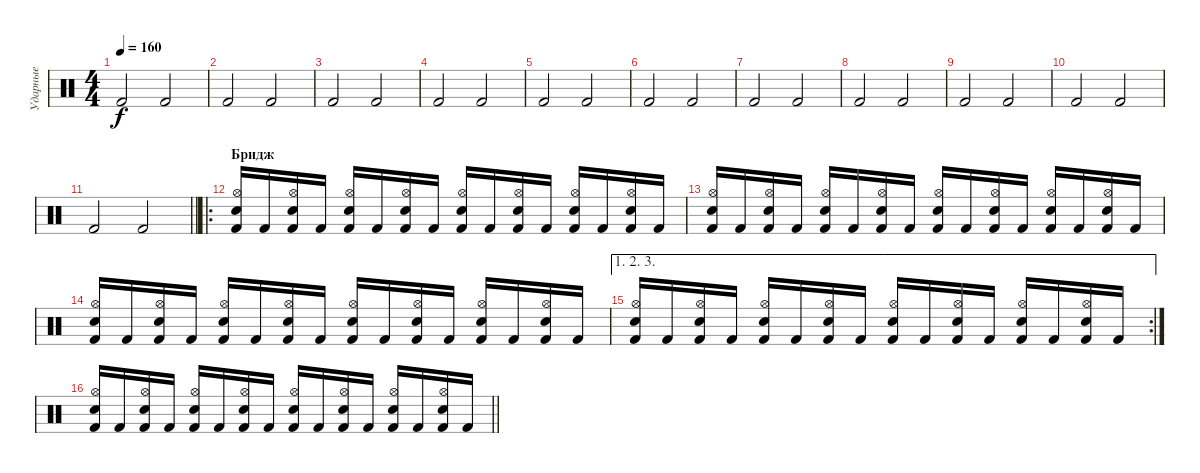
\track ("Ударные" "Ударные") {instrument percussion}
\staff {score}
\articulation defaults
\ts (4 4)
\tempo 160
\clef neutral
\ks c "Kick (hit) 2".2{dy f} "Kick (hit) 2".2
|
"Kick (hit) 2".2 "Kick (hit) 2".2 |
"Kick (hit) 2".2 "Kick (hit) 2".2 |
"Kick (hit) 2".2 "Kick (hit) 2".2 |
"Kick (hit) 2".2 "Kick (hit) 2".2 |
"Kick (hit) 2".2 "Kick (hit) 2".2 |
"Kick (hit) 2".2 "Kick (hit) 2".2 |
"Kick (hit) 2".2 "Kick (hit) 2".2 |
"Kick (hit) 2".2 "Kick (hit) 2".2 |
"Kick (hit) 2".2 "Kick (hit) 2".2 |
\barLineRight lightlight "Kick (hit) 2".2 "Kick (hit) 2".2
|
\ro
\section ("" "Бридж")
("Hi-Hat (open)" "Snare (hit) 2" "Kick (hit) 2").16 "Kick (hit) 2".16 ("Hi-Hat (open)" "Snare (hit) 2" "Kick (hit) 2").16 "Kick (hit) 2".16 ("Hi-Hat (open)" "Snare (hit) 2" "Kick (hit) 2").16 "Kick (hit) 2".16 ("Hi-Hat (open)" "Snare (hit) 2" "Kick (hit) 2").16 "Kick (hit) 2".16 ("Hi-Hat (open)" "Snare (hit) 2" "Kick (hit) 2").16 "Kick (hit) 2".16 ("Hi-Hat (open)" "Snare (hit) 2" "Kick (hit) 2").16 "Kick (hit) 2".16 ("Hi-Hat (open)" "Snare (hit) 2" "Kick (hit) 2").16 "Kick (hit) 2".16 ("Hi-Hat (open)" "Snare (hit) 2" "Kick (hit) 2").16 "Kick (hit) 2".16 |
("Hi-Hat (open)" "Snare (hit) 2" "Kick (hit) 2").16 "Kick (hit) 2".16 ("Hi-Hat (open)" "Snare (hit) 2" "Kick (hit) 2").16 "Kick (hit) 2".16 ("Hi-Hat (open)" "Snare (hit) 2" "Kick (hit) 2").16 "Kick (hit) 2".16 ("Hi-Hat (open)" "Snare (hit) 2" "Kick (hit) 2").16 "Kick (hit) 2".16 ("Hi-Hat (open)" "Snare (hit) 2" "Kick (hit) 2").16 "Kick (hit) 2".16 ("Hi-Hat (open)" "Snare (hit) 2" "Kick (hit) 2").16 "Kick (hit) 2".16 ("Hi-Hat (open)" "Snare (hit) 2" "Kick (hit) 2").16 "Kick (hit) 2".16 ("Hi-Hat (open)" "Snare (hit) 2" "Kick (hit) 2").16 "Kick (hit) 2".16 |
("Hi-Hat (open)" "Snare (hit) 2" "Kick (hit) 2").16 "Kick (hit) 2".16 ("Hi-Hat (open)" "Snare (hit) 2" "Kick (hit) 2").16 "Kick (hit) 2".16 ("Hi-Hat (open)" "Snare (hit) 2" "Kick (hit) 2").16 "Kick (hit) 2".16 ("Hi-Hat (open)" "Snare (hit) 2" "Kick (hit) 2").16 "Kick (hit) 2".16 ("Hi-Hat (open)" "Snare (hit) 2" "Kick (hit) 2").16 "Kick (hit) 2".16 ("Hi-Hat (open)" "Snare (hit) 2" "Kick (hit) 2").16 "Kick (hit) 2".16 ("Hi-Hat (open)" "Snare (hit) 2" "Kick (hit) 2").16 "Kick (hit) 2".16 ("Hi-Hat (open)" "Snare (hit) 2" "Kick (hit) 2").16 "Kick (hit) 2".16 |
\ae (1 2 3)
\rc 2
("Hi-Hat (open)" "Snare (hit) 2" "Kick (hit) 2").16 "Kick (hit) 2".16 ("Hi-Hat (open)" "Snare (hit) 2" "Kick (hit) 2").16 "Kick (hit) 2".16 ("Hi-Hat (open)" "Snare (hit) 2" "Kick (hit) 2").16 "Kick (hit) 2".16 ("Hi-Hat (open)" "Snare (hit) 2" "Kick (hit) 2").16 "Kick (hit) 2".16 ("Hi-Hat (open)" "Snare (hit) 2" "Kick (hit) 2").16 "Kick (hit) 2".16 ("Hi-Hat (open)" "Snare (hit) 2" "Kick (hit) 2").16 "Kick (hit) 2".16 ("Hi-Hat (open)" "Snare (hit) 2" "Kick (hit) 2").16 "Kick (hit) 2".16 ("Hi-Hat (open)" "Snare (hit) 2" "Kick (hit) 2").16 "Kick (hit) 2".16 |
\barLineRight lightlight
("Hi-Hat (open)" "Snare (hit) 2" "Kick (hit) 2").16 "Kick (hit) 2".16 ("Hi-Hat (open)" "Snare (hit) 2" "Kick (hit) 2").16 "Kick (hit) 2".16 ("Hi-Hat (open)" "Snare (hit) 2" "Kick (hit) 2").16 "Kick (hit) 2".16 ("Hi-Hat (open)" "Snare (hit) 2" "Kick (hit) 2").16 "Kick (hit) 2".16 ("Hi-Hat (open)" "Snare (hit) 2" "Kick (hit) 2").16 "Kick (hit) 2".16 ("Hi-Hat (open)" "Snare (hit) 2" "Kick (hit) 2").16 "Kick (hit) 2".16 ("Hi-Hat (open)" "Snare (hit) 2" "Kick (hit) 2").16 "Kick (hit) 2".16 ("Hi-Hat (open)" "Snare (hit) 2" "Kick (hit) 2").16 "Kick (hit) 2".16
